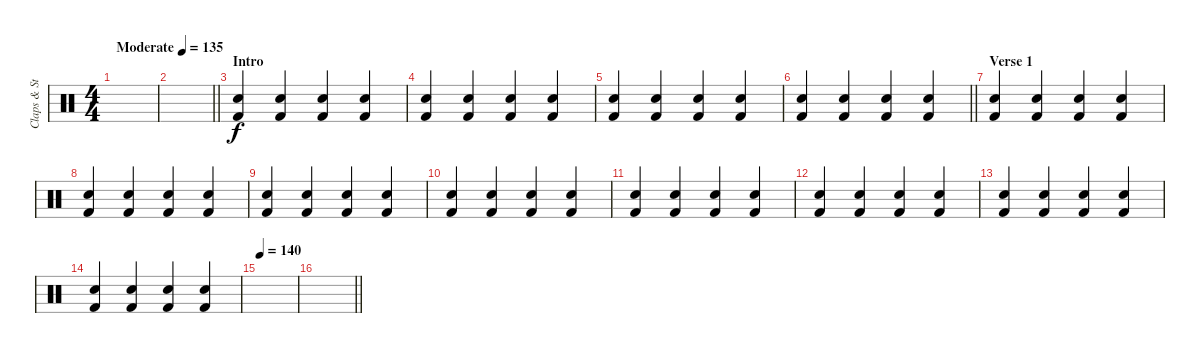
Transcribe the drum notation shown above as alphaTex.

\track ("Claps & Stomps" "Claps & St") {instrument percussion}
\staff {score}
\articulation defaults
\ts (4 4)
\tempo (135 "Moderate")
\clef neutral
\ks c
|
\barLineRight lightlight
|
\section ("" "Intro")
("Hand Clap (hit)" "Kick (hit) 2").4 ("Hand Clap (hit)" "Kick (hit) 2").4 ("Hand Clap (hit)" "Kick (hit) 2").4 ("Hand Clap (hit)" "Kick (hit) 2").4 |
("Hand Clap (hit)" "Kick (hit) 2").4 ("Hand Clap (hit)" "Kick (hit) 2").4 ("Hand Clap (hit)" "Kick (hit) 2").4 ("Hand Clap (hit)" "Kick (hit) 2").4 |
("Hand Clap (hit)" "Kick (hit) 2").4 ("Hand Clap (hit)" "Kick (hit) 2").4 ("Hand Clap (hit)" "Kick (hit) 2").4 ("Hand Clap (hit)" "Kick (hit) 2").4 |
\barLineRight lightlight
("Hand Clap (hit)" "Kick (hit) 2").4 ("Hand Clap (hit)" "Kick (hit) 2").4 ("Hand Clap (hit)" "Kick (hit) 2").4 ("Hand Clap (hit)" "Kick (hit) 2").4 |
\section ("" "Verse 1")
("Hand Clap (hit)" "Kick (hit) 2").4 ("Hand Clap (hit)" "Kick (hit) 2").4 ("Hand Clap (hit)" "Kick (hit) 2").4 ("Hand Clap (hit)" "Kick (hit) 2").4 |
("Hand Clap (hit)" "Kick (hit) 2").4 ("Hand Clap (hit)" "Kick (hit) 2").4 ("Hand Clap (hit)" "Kick (hit) 2").4 ("Hand Clap (hit)" "Kick (hit) 2").4 |
("Hand Clap (hit)" "Kick (hit) 2").4 ("Hand Clap (hit)" "Kick (hit) 2").4 ("Hand Clap (hit)" "Kick (hit) 2").4 ("Hand Clap (hit)" "Kick (hit) 2").4 |
("Hand Clap (hit)" "Kick (hit) 2").4 ("Hand Clap (hit)" "Kick (hit) 2").4 ("Hand Clap (hit)" "Kick (hit) 2").4 ("Hand Clap (hit)" "Kick (hit) 2").4 |
("Hand Clap (hit)" "Kick (hit) 2").4 ("Hand Clap (hit)" "Kick (hit) 2").4 ("Hand Clap (hit)" "Kick (hit) 2").4 ("Hand Clap (hit)" "Kick (hit) 2").4 |
("Hand Clap (hit)" "Kick (hit) 2").4 ("Hand Clap (hit)" "Kick (hit) 2").4 ("Hand Clap (hit)" "Kick (hit) 2").4 ("Hand Clap (hit)" "Kick (hit) 2").4 |
("Hand Clap (hit)" "Kick (hit) 2").4 ("Hand Clap (hit)" "Kick (hit) 2").4 ("Hand Clap (hit)" "Kick (hit) 2").4 ("Hand Clap (hit)" "Kick (hit) 2").4 |
("Hand Clap (hit)" "Kick (hit) 2").4 ("Hand Clap (hit)" "Kick (hit) 2").4 ("Hand Clap (hit)" "Kick (hit) 2").4 ("Hand Clap (hit)" "Kick (hit) 2").4 |
\tempo 140
|
\barLineRight lightlight
